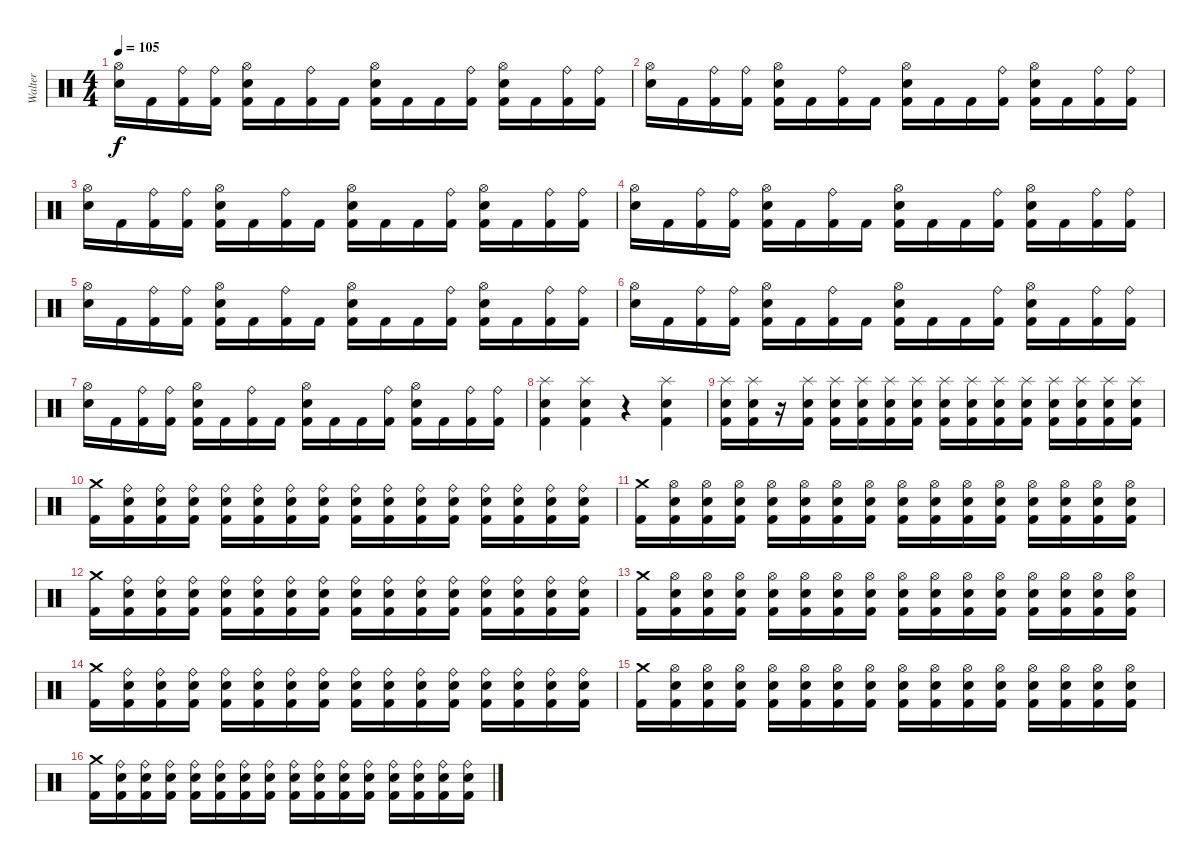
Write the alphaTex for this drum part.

\track ("Walter" "Walter") {instrument percussion}
\staff {score}
\articulation defaults
\ts (4 4)
\tempo 105
\clef neutral
\ks c
("Hi-Hat (open)" "Electric Snare (hit)").16{dy f} "Kick (hit) 2".16 ("Ride (bell)" "Kick (hit) 2").16 ("Ride (bell)" "Kick (hit) 2").16 ("Hi-Hat (open)" "Electric Snare (hit)" "Kick (hit) 2").16 "Kick (hit) 2".16 ("Ride (bell)" "Kick (hit) 2").16 "Kick (hit) 2".16 ("Hi-Hat (open)" "Electric Snare (hit)" "Kick (hit) 2").16 "Kick (hit) 2".16 "Kick (hit) 2".16 ("Ride (bell)" "Kick (hit) 2").16 ("Hi-Hat (open)" "Electric Snare (hit)" "Kick (hit) 2").16 "Kick (hit) 2".16 ("Ride (bell)" "Kick (hit) 2").16 ("Ride (bell)" "Kick (hit) 2").16 |
("Hi-Hat (open)" "Electric Snare (hit)").16 "Kick (hit) 2".16 ("Ride (bell)" "Kick (hit) 2").16 ("Ride (bell)" "Kick (hit) 2").16 ("Hi-Hat (open)" "Electric Snare (hit)" "Kick (hit) 2").16 "Kick (hit) 2".16 ("Ride (bell)" "Kick (hit) 2").16 "Kick (hit) 2".16 ("Hi-Hat (open)" "Electric Snare (hit)" "Kick (hit) 2").16 "Kick (hit) 2".16 "Kick (hit) 2".16 ("Ride (bell)" "Kick (hit) 2").16 ("Hi-Hat (open)" "Electric Snare (hit)" "Kick (hit) 2").16 "Kick (hit) 2".16 ("Ride (bell)" "Kick (hit) 2").16 ("Ride (bell)" "Kick (hit) 2").16 |
("Hi-Hat (open)" "Electric Snare (hit)").16 "Kick (hit) 2".16 ("Ride (bell)" "Kick (hit) 2").16 ("Ride (bell)" "Kick (hit) 2").16 ("Hi-Hat (open)" "Electric Snare (hit)" "Kick (hit) 2").16 "Kick (hit) 2".16 ("Ride (bell)" "Kick (hit) 2").16 "Kick (hit) 2".16 ("Hi-Hat (open)" "Electric Snare (hit)" "Kick (hit) 2").16 "Kick (hit) 2".16 "Kick (hit) 2".16 ("Ride (bell)" "Kick (hit) 2").16 ("Hi-Hat (open)" "Electric Snare (hit)" "Kick (hit) 2").16 "Kick (hit) 2".16 ("Ride (bell)" "Kick (hit) 2").16 ("Ride (bell)" "Kick (hit) 2").16 |
("Hi-Hat (open)" "Electric Snare (hit)").16 "Kick (hit) 2".16 ("Ride (bell)" "Kick (hit) 2").16 ("Ride (bell)" "Kick (hit) 2").16 ("Hi-Hat (open)" "Electric Snare (hit)" "Kick (hit) 2").16 "Kick (hit) 2".16 ("Ride (bell)" "Kick (hit) 2").16 "Kick (hit) 2".16 ("Hi-Hat (open)" "Electric Snare (hit)" "Kick (hit) 2").16 "Kick (hit) 2".16 "Kick (hit) 2".16 ("Ride (bell)" "Kick (hit) 2").16 ("Hi-Hat (open)" "Electric Snare (hit)" "Kick (hit) 2").16 "Kick (hit) 2".16 ("Ride (bell)" "Kick (hit) 2").16 ("Ride (bell)" "Kick (hit) 2").16 |
("Hi-Hat (open)" "Electric Snare (hit)").16 "Kick (hit) 2".16 ("Ride (bell)" "Kick (hit) 2").16 ("Ride (bell)" "Kick (hit) 2").16 ("Hi-Hat (open)" "Electric Snare (hit)" "Kick (hit) 2").16 "Kick (hit) 2".16 ("Ride (bell)" "Kick (hit) 2").16 "Kick (hit) 2".16 ("Hi-Hat (open)" "Electric Snare (hit)" "Kick (hit) 2").16 "Kick (hit) 2".16 "Kick (hit) 2".16 ("Ride (bell)" "Kick (hit) 2").16 ("Hi-Hat (open)" "Electric Snare (hit)" "Kick (hit) 2").16 "Kick (hit) 2".16 ("Ride (bell)" "Kick (hit) 2").16 ("Ride (bell)" "Kick (hit) 2").16 |
("Hi-Hat (open)" "Electric Snare (hit)").16 "Kick (hit) 2".16 ("Ride (bell)" "Kick (hit) 2").16 ("Ride (bell)" "Kick (hit) 2").16 ("Hi-Hat (open)" "Electric Snare (hit)" "Kick (hit) 2").16 "Kick (hit) 2".16 ("Ride (bell)" "Kick (hit) 2").16 "Kick (hit) 2".16 ("Hi-Hat (open)" "Electric Snare (hit)" "Kick (hit) 2").16 "Kick (hit) 2".16 "Kick (hit) 2".16 ("Ride (bell)" "Kick (hit) 2").16 ("Hi-Hat (open)" "Electric Snare (hit)" "Kick (hit) 2").16 "Kick (hit) 2".16 ("Ride (bell)" "Kick (hit) 2").16 ("Ride (bell)" "Kick (hit) 2").16 |
("Hi-Hat (open)" "Electric Snare (hit)").16 "Kick (hit) 2".16 ("Ride (bell)" "Kick (hit) 2").16 ("Ride (bell)" "Kick (hit) 2").16 ("Hi-Hat (open)" "Electric Snare (hit)" "Kick (hit) 2").16 "Kick (hit) 2".16 ("Ride (bell)" "Kick (hit) 2").16 "Kick (hit) 2".16 ("Hi-Hat (open)" "Electric Snare (hit)" "Kick (hit) 2").16 "Kick (hit) 2".16 "Kick (hit) 2".16 ("Ride (bell)" "Kick (hit) 2").16 ("Hi-Hat (open)" "Electric Snare (hit)" "Kick (hit) 2").16 "Kick (hit) 2".16 ("Ride (bell)" "Kick (hit) 2").16 ("Ride (bell)" "Kick (hit) 2").16 |
("Splash (hit)" "Electric Snare (hit)" "Kick (hit) 2").4 ("Splash (hit)" "Electric Snare (hit)" "Kick (hit) 2").4 r.4 ("Splash (hit)" "Electric Snare (hit)" "Kick (hit) 2").4 |
("Splash (hit)" "Electric Snare (hit)" "Kick (hit) 2").16 ("Splash (hit)" "Electric Snare (hit)" "Kick (hit) 2").16 r.16 ("Splash (hit)" "Electric Snare (hit)" "Kick (hit) 2").16 ("Splash (hit)" "Electric Snare (hit)" "Kick (hit) 2").16 ("Splash (hit)" "Electric Snare (hit)" "Kick (hit) 2").16 ("Splash (hit)" "Electric Snare (hit)" "Kick (hit) 2").16 ("Splash (hit)" "Electric Snare (hit)" "Kick (hit) 2").16 ("Splash (hit)" "Electric Snare (hit)" "Kick (hit) 2").16 ("Splash (hit)" "Electric Snare (hit)" "Kick (hit) 2").16 ("Splash (hit)" "Electric Snare (hit)" "Kick (hit) 2").16 ("Splash (hit)" "Electric Snare (hit)" "Kick (hit) 2").16 ("Splash (hit)" "Electric Snare (hit)" "Kick (hit) 2").16 ("Splash (hit)" "Electric Snare (hit)" "Kick (hit) 2").16 ("Splash (hit)" "Electric Snare (hit)" "Kick (hit) 2").16 ("Splash (hit)" "Electric Snare (hit)" "Kick (hit) 2").16 |
("Kick (hit) 2" "Crash medium (hit)").16 ("Kick (hit) 2" "Electric Snare (hit)" "Ride (bell)").16 ("Kick (hit) 2" "Electric Snare (hit)" "Ride (bell)").16 ("Kick (hit) 2" "Electric Snare (hit)" "Ride (bell)").16 ("Kick (hit) 2" "Electric Snare (hit)" "Ride (bell)").16 ("Kick (hit) 2" "Electric Snare (hit)" "Ride (bell)").16 ("Kick (hit) 2" "Electric Snare (hit)" "Ride (bell)").16 ("Kick (hit) 2" "Electric Snare (hit)" "Ride (bell)").16 ("Kick (hit) 2" "Electric Snare (hit)" "Ride (bell)").16 ("Kick (hit) 2" "Electric Snare (hit)" "Ride (bell)").16 ("Kick (hit) 2" "Electric Snare (hit)" "Ride (bell)").16 ("Kick (hit) 2" "Electric Snare (hit)" "Ride (bell)").16 ("Kick (hit) 2" "Electric Snare (hit)" "Ride (bell)").16 ("Kick (hit) 2" "Electric Snare (hit)" "Ride (bell)").16 ("Kick (hit) 2" "Electric Snare (hit)" "Ride (bell)").16 ("Kick (hit) 2" "Electric Snare (hit)" "Ride (bell)").16 |
("Kick (hit) 2" "Crash medium (hit)").16 ("Kick (hit) 2" "Electric Snare (hit)" "Hi-Hat (open)").16 ("Kick (hit) 2" "Electric Snare (hit)" "Hi-Hat (open)").16 ("Kick (hit) 2" "Electric Snare (hit)" "Hi-Hat (open)").16 ("Kick (hit) 2" "Electric Snare (hit)" "Hi-Hat (open)").16 ("Kick (hit) 2" "Electric Snare (hit)" "Hi-Hat (open)").16 ("Kick (hit) 2" "Electric Snare (hit)" "Hi-Hat (open)").16 ("Kick (hit) 2" "Electric Snare (hit)" "Hi-Hat (open)").16 ("Kick (hit) 2" "Electric Snare (hit)" "Hi-Hat (open)").16 ("Kick (hit) 2" "Electric Snare (hit)" "Hi-Hat (open)").16 ("Kick (hit) 2" "Electric Snare (hit)" "Hi-Hat (open)").16 ("Kick (hit) 2" "Electric Snare (hit)" "Hi-Hat (open)").16 ("Kick (hit) 2" "Electric Snare (hit)" "Hi-Hat (open)").16 ("Kick (hit) 2" "Electric Snare (hit)" "Hi-Hat (open)").16 ("Kick (hit) 2" "Electric Snare (hit)" "Hi-Hat (open)").16 ("Kick (hit) 2" "Electric Snare (hit)" "Hi-Hat (open)").16 |
("Kick (hit) 2" "Crash medium (hit)").16 ("Kick (hit) 2" "Electric Snare (hit)" "Ride (bell)").16 ("Kick (hit) 2" "Electric Snare (hit)" "Ride (bell)").16 ("Kick (hit) 2" "Electric Snare (hit)" "Ride (bell)").16 ("Kick (hit) 2" "Electric Snare (hit)" "Ride (bell)").16 ("Kick (hit) 2" "Electric Snare (hit)" "Ride (bell)").16 ("Kick (hit) 2" "Electric Snare (hit)" "Ride (bell)").16 ("Kick (hit) 2" "Electric Snare (hit)" "Ride (bell)").16 ("Kick (hit) 2" "Electric Snare (hit)" "Ride (bell)").16 ("Kick (hit) 2" "Electric Snare (hit)" "Ride (bell)").16 ("Kick (hit) 2" "Electric Snare (hit)" "Ride (bell)").16 ("Kick (hit) 2" "Electric Snare (hit)" "Ride (bell)").16 ("Kick (hit) 2" "Electric Snare (hit)" "Ride (bell)").16 ("Kick (hit) 2" "Electric Snare (hit)" "Ride (bell)").16 ("Kick (hit) 2" "Electric Snare (hit)" "Ride (bell)").16 ("Kick (hit) 2" "Electric Snare (hit)" "Ride (bell)").16 |
("Kick (hit) 2" "Crash medium (hit)").16 ("Kick (hit) 2" "Electric Snare (hit)" "Hi-Hat (open)").16 ("Kick (hit) 2" "Electric Snare (hit)" "Hi-Hat (open)").16 ("Kick (hit) 2" "Electric Snare (hit)" "Hi-Hat (open)").16 ("Kick (hit) 2" "Electric Snare (hit)" "Hi-Hat (open)").16 ("Kick (hit) 2" "Electric Snare (hit)" "Hi-Hat (open)").16 ("Kick (hit) 2" "Electric Snare (hit)" "Hi-Hat (open)").16 ("Kick (hit) 2" "Electric Snare (hit)" "Hi-Hat (open)").16 ("Kick (hit) 2" "Electric Snare (hit)" "Hi-Hat (open)").16 ("Kick (hit) 2" "Electric Snare (hit)" "Hi-Hat (open)").16 ("Kick (hit) 2" "Electric Snare (hit)" "Hi-Hat (open)").16 ("Kick (hit) 2" "Electric Snare (hit)" "Hi-Hat (open)").16 ("Kick (hit) 2" "Electric Snare (hit)" "Hi-Hat (open)").16 ("Kick (hit) 2" "Electric Snare (hit)" "Hi-Hat (open)").16 ("Kick (hit) 2" "Electric Snare (hit)" "Hi-Hat (open)").16 ("Kick (hit) 2" "Electric Snare (hit)" "Hi-Hat (open)").16 |
("Kick (hit) 2" "Crash medium (hit)").16 ("Kick (hit) 2" "Electric Snare (hit)" "Ride (bell)").16 ("Kick (hit) 2" "Electric Snare (hit)" "Ride (bell)").16 ("Kick (hit) 2" "Electric Snare (hit)" "Ride (bell)").16 ("Kick (hit) 2" "Electric Snare (hit)" "Ride (bell)").16 ("Kick (hit) 2" "Electric Snare (hit)" "Ride (bell)").16 ("Kick (hit) 2" "Electric Snare (hit)" "Ride (bell)").16 ("Kick (hit) 2" "Electric Snare (hit)" "Ride (bell)").16 ("Kick (hit) 2" "Electric Snare (hit)" "Ride (bell)").16 ("Kick (hit) 2" "Electric Snare (hit)" "Ride (bell)").16 ("Kick (hit) 2" "Electric Snare (hit)" "Ride (bell)").16 ("Kick (hit) 2" "Electric Snare (hit)" "Ride (bell)").16 ("Kick (hit) 2" "Electric Snare (hit)" "Ride (bell)").16 ("Kick (hit) 2" "Electric Snare (hit)" "Ride (bell)").16 ("Kick (hit) 2" "Electric Snare (hit)" "Ride (bell)").16 ("Kick (hit) 2" "Electric Snare (hit)" "Ride (bell)").16 |
("Kick (hit) 2" "Crash medium (hit)").16 ("Kick (hit) 2" "Electric Snare (hit)" "Hi-Hat (open)").16 ("Kick (hit) 2" "Electric Snare (hit)" "Hi-Hat (open)").16 ("Kick (hit) 2" "Electric Snare (hit)" "Hi-Hat (open)").16 ("Kick (hit) 2" "Electric Snare (hit)" "Hi-Hat (open)").16 ("Kick (hit) 2" "Electric Snare (hit)" "Hi-Hat (open)").16 ("Kick (hit) 2" "Electric Snare (hit)" "Hi-Hat (open)").16 ("Kick (hit) 2" "Electric Snare (hit)" "Hi-Hat (open)").16 ("Kick (hit) 2" "Electric Snare (hit)" "Hi-Hat (open)").16 ("Kick (hit) 2" "Electric Snare (hit)" "Hi-Hat (open)").16 ("Kick (hit) 2" "Electric Snare (hit)" "Hi-Hat (open)").16 ("Kick (hit) 2" "Electric Snare (hit)" "Hi-Hat (open)").16 ("Kick (hit) 2" "Electric Snare (hit)" "Hi-Hat (open)").16 ("Kick (hit) 2" "Electric Snare (hit)" "Hi-Hat (open)").16 ("Kick (hit) 2" "Electric Snare (hit)" "Hi-Hat (open)").16 ("Kick (hit) 2" "Electric Snare (hit)" "Hi-Hat (open)").16 |
("Kick (hit) 2" "Crash medium (hit)").16 ("Kick (hit) 2" "Electric Snare (hit)" "Ride (bell)").16 ("Kick (hit) 2" "Electric Snare (hit)" "Ride (bell)").16 ("Kick (hit) 2" "Electric Snare (hit)" "Ride (bell)").16 ("Kick (hit) 2" "Electric Snare (hit)" "Ride (bell)").16 ("Kick (hit) 2" "Electric Snare (hit)" "Ride (bell)").16 ("Kick (hit) 2" "Electric Snare (hit)" "Ride (bell)").16 ("Kick (hit) 2" "Electric Snare (hit)" "Ride (bell)").16 ("Kick (hit) 2" "Electric Snare (hit)" "Ride (bell)").16 ("Kick (hit) 2" "Electric Snare (hit)" "Ride (bell)").16 ("Kick (hit) 2" "Electric Snare (hit)" "Ride (bell)").16 ("Kick (hit) 2" "Electric Snare (hit)" "Ride (bell)").16 ("Kick (hit) 2" "Electric Snare (hit)" "Ride (bell)").16 ("Kick (hit) 2" "Electric Snare (hit)" "Ride (bell)").16 ("Kick (hit) 2" "Electric Snare (hit)" "Ride (bell)").16 ("Kick (hit) 2" "Electric Snare (hit)" "Ride (bell)").16
